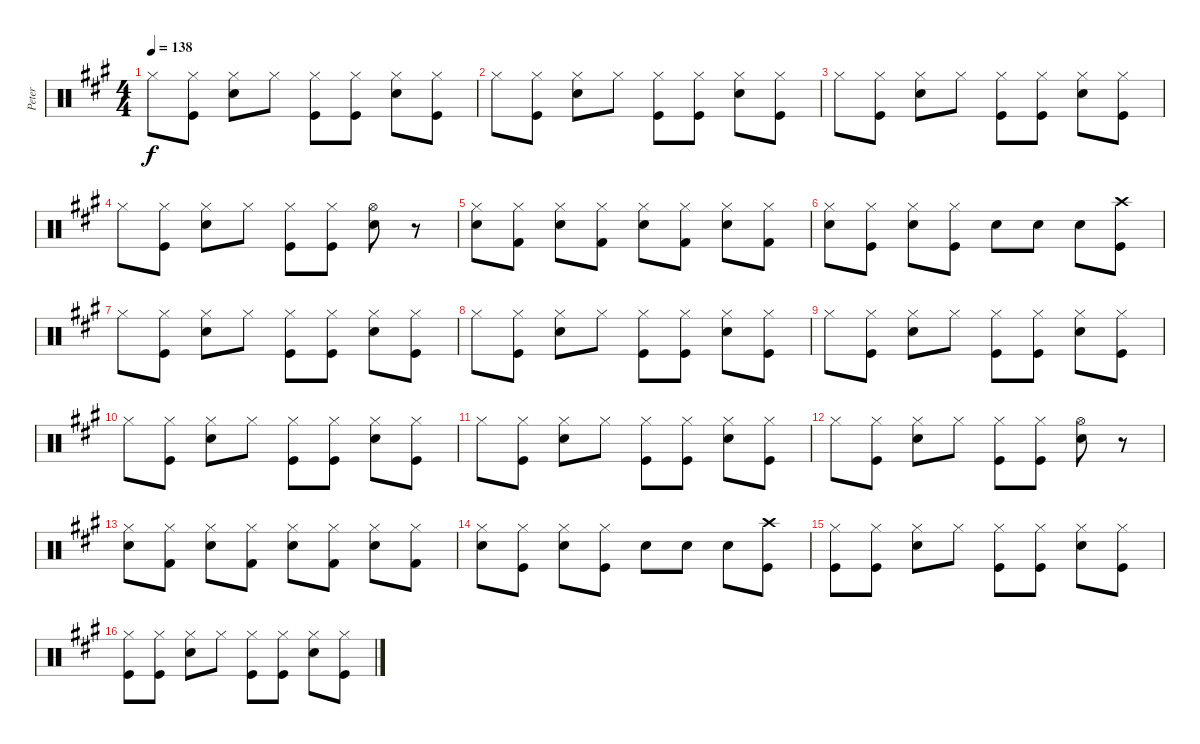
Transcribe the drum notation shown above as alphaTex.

\track ("Peter" "Peter") {instrument percussion}
\staff {score}
\articulation defaults
\ts (4 4)
\tempo 138
\clef neutral
\ks a "Hi-Hat (closed)".8{dy f}
("Hi-Hat (closed)" "Kick (hit)").8 ("Hi-Hat (closed)" "Snare (hit) 2").8 "Hi-Hat (closed)".8 ("Hi-Hat (closed)" "Kick (hit)").8 ("Hi-Hat (closed)" "Kick (hit)").8 ("Hi-Hat (closed)" "Snare (hit) 2").8 ("Hi-Hat (closed)" "Kick (hit)").8 |
"Hi-Hat (closed)".8 ("Hi-Hat (closed)" "Kick (hit)").8 ("Hi-Hat (closed)" "Snare (hit) 2").8 "Hi-Hat (closed)".8 ("Hi-Hat (closed)" "Kick (hit)").8 ("Hi-Hat (closed)" "Kick (hit)").8 ("Hi-Hat (closed)" "Snare (hit) 2").8 ("Hi-Hat (closed)" "Kick (hit)").8 |
"Hi-Hat (closed)".8 ("Hi-Hat (closed)" "Kick (hit)").8 ("Hi-Hat (closed)" "Snare (hit) 2").8 "Hi-Hat (closed)".8 ("Hi-Hat (closed)" "Kick (hit)").8 ("Hi-Hat (closed)" "Kick (hit)").8 ("Hi-Hat (closed)" "Snare (hit) 2").8 ("Hi-Hat (closed)" "Kick (hit)").8 |
"Hi-Hat (closed)".8 ("Hi-Hat (closed)" "Kick (hit)").8 ("Hi-Hat (closed)" "Snare (hit) 2").8 "Hi-Hat (closed)".8 ("Hi-Hat (closed)" "Kick (hit)").8 ("Hi-Hat (closed)" "Kick (hit)").8 ("Hi-Hat (open)" "Snare (hit) 2").8 r.8 |
("Hi-Hat (closed)" "Snare (hit) 2").8 ("Hi-Hat (closed)" "Kick (hit) 2").8 ("Hi-Hat (closed)" "Snare (hit) 2").8 ("Hi-Hat (closed)" "Kick (hit) 2").8 ("Hi-Hat (closed)" "Snare (hit) 2").8 ("Hi-Hat (closed)" "Kick (hit) 2").8 ("Hi-Hat (closed)" "Snare (hit) 2").8 ("Hi-Hat (closed)" "Kick (hit) 2").8 |
("Hi-Hat (closed)" "Snare (hit) 2").8 ("Hi-Hat (closed)" "Kick (hit)").8 ("Hi-Hat (closed)" "Snare (hit) 2").8 ("Hi-Hat (closed)" "Kick (hit)").8 "Snare (hit) 2".8 "Snare (hit) 2".8 "Snare (hit) 2".8 ("Crash high (hit)" "Kick (hit)").8 |
"Hi-Hat (closed)".8 ("Hi-Hat (closed)" "Kick (hit)").8 ("Hi-Hat (closed)" "Snare (hit) 2").8 "Hi-Hat (closed)".8 ("Hi-Hat (closed)" "Kick (hit)").8 ("Hi-Hat (closed)" "Kick (hit)").8 ("Hi-Hat (closed)" "Snare (hit) 2").8 ("Hi-Hat (closed)" "Kick (hit)").8 |
"Hi-Hat (closed)".8 ("Hi-Hat (closed)" "Kick (hit)").8 ("Hi-Hat (closed)" "Snare (hit) 2").8 "Hi-Hat (closed)".8 ("Hi-Hat (closed)" "Kick (hit)").8 ("Hi-Hat (closed)" "Kick (hit)").8 ("Hi-Hat (closed)" "Snare (hit) 2").8 ("Hi-Hat (closed)" "Kick (hit)").8 |
"Hi-Hat (closed)".8 ("Hi-Hat (closed)" "Kick (hit)").8 ("Hi-Hat (closed)" "Snare (hit) 2").8 "Hi-Hat (closed)".8 ("Hi-Hat (closed)" "Kick (hit)").8 ("Hi-Hat (closed)" "Kick (hit)").8 ("Hi-Hat (closed)" "Snare (hit) 2").8 ("Hi-Hat (closed)" "Kick (hit)").8 |
"Hi-Hat (closed)".8 ("Hi-Hat (closed)" "Kick (hit)").8 ("Hi-Hat (closed)" "Snare (hit) 2").8 "Hi-Hat (closed)".8 ("Hi-Hat (closed)" "Kick (hit)").8 ("Hi-Hat (closed)" "Kick (hit)").8 ("Hi-Hat (closed)" "Snare (hit) 2").8 ("Hi-Hat (closed)" "Kick (hit)").8 |
"Hi-Hat (closed)".8 ("Hi-Hat (closed)" "Kick (hit)").8 ("Hi-Hat (closed)" "Snare (hit) 2").8 "Hi-Hat (closed)".8 ("Hi-Hat (closed)" "Kick (hit)").8 ("Hi-Hat (closed)" "Kick (hit)").8 ("Hi-Hat (closed)" "Snare (hit) 2").8 ("Hi-Hat (closed)" "Kick (hit)").8 |
"Hi-Hat (closed)".8 ("Hi-Hat (closed)" "Kick (hit)").8 ("Hi-Hat (closed)" "Snare (hit) 2").8 "Hi-Hat (closed)".8 ("Hi-Hat (closed)" "Kick (hit)").8 ("Hi-Hat (closed)" "Kick (hit)").8 ("Hi-Hat (open)" "Snare (hit) 2").8 r.8 |
("Hi-Hat (closed)" "Snare (hit) 2").8 ("Hi-Hat (closed)" "Kick (hit) 2").8 ("Hi-Hat (closed)" "Snare (hit) 2").8 ("Hi-Hat (closed)" "Kick (hit) 2").8 ("Hi-Hat (closed)" "Snare (hit) 2").8 ("Hi-Hat (closed)" "Kick (hit) 2").8 ("Hi-Hat (closed)" "Snare (hit) 2").8 ("Hi-Hat (closed)" "Kick (hit) 2").8 |
("Hi-Hat (closed)" "Snare (hit) 2").8 ("Hi-Hat (closed)" "Kick (hit)").8 ("Hi-Hat (closed)" "Snare (hit) 2").8 ("Hi-Hat (closed)" "Kick (hit)").8 "Snare (hit) 2".8 "Snare (hit) 2".8 "Snare (hit) 2".8 ("Crash high (hit)" "Kick (hit)").8 |
("Hi-Hat (closed)" "Kick (hit)").8 ("Hi-Hat (closed)" "Kick (hit)").8 ("Hi-Hat (closed)" "Snare (hit) 2").8 "Hi-Hat (closed)".8 ("Hi-Hat (closed)" "Kick (hit)").8 ("Hi-Hat (closed)" "Kick (hit)").8 ("Hi-Hat (closed)" "Snare (hit) 2").8 ("Hi-Hat (closed)" "Kick (hit)").8 |
("Hi-Hat (closed)" "Kick (hit)").8 ("Hi-Hat (closed)" "Kick (hit)").8 ("Hi-Hat (closed)" "Snare (hit) 2").8 "Hi-Hat (closed)".8 ("Hi-Hat (closed)" "Kick (hit)").8 ("Hi-Hat (closed)" "Kick (hit)").8 ("Hi-Hat (closed)" "Snare (hit) 2").8 ("Hi-Hat (closed)" "Kick (hit)").8
